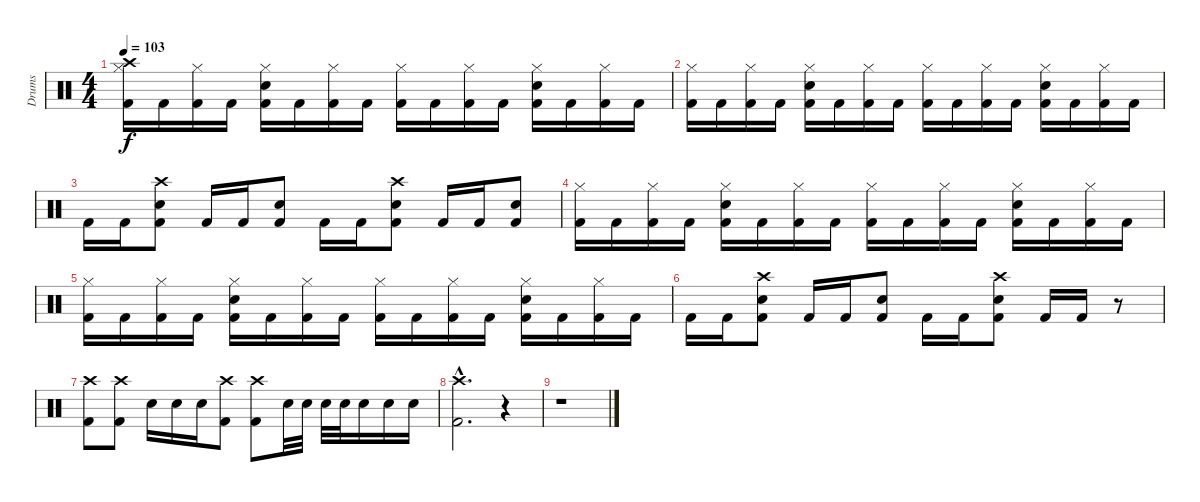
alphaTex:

\track ("Drums" "Drums") {instrument percussion}
\staff {score}
\articulation defaults
\ts (4 4)
\tempo 103
\clef neutral
\ks c
("Hi-Hat (closed)" "Crash high (hit)" "Kick (hit) 2").16{dy f} "Kick (hit) 2".16 ("Hi-Hat (closed)" "Kick (hit) 2").16 "Kick (hit) 2".16 ("Hi-Hat (closed)" "Electric Snare (hit)" "Kick (hit) 2").16 "Kick (hit) 2".16 ("Hi-Hat (closed)" "Kick (hit) 2").16 "Kick (hit) 2".16 ("Hi-Hat (closed)" "Kick (hit) 2").16 "Kick (hit) 2".16 ("Hi-Hat (closed)" "Kick (hit) 2").16 "Kick (hit) 2".16 ("Hi-Hat (closed)" "Electric Snare (hit)" "Kick (hit) 2").16 "Kick (hit) 2".16 ("Hi-Hat (closed)" "Kick (hit) 2").16 "Kick (hit) 2".16 |
("Hi-Hat (closed)" "Kick (hit) 2").16 "Kick (hit) 2".16 ("Hi-Hat (closed)" "Kick (hit) 2").16 "Kick (hit) 2".16 ("Hi-Hat (closed)" "Electric Snare (hit)" "Kick (hit) 2").16 "Kick (hit) 2".16 ("Hi-Hat (closed)" "Kick (hit) 2").16 "Kick (hit) 2".16 ("Hi-Hat (closed)" "Kick (hit) 2").16 "Kick (hit) 2".16 ("Hi-Hat (closed)" "Kick (hit) 2").16 "Kick (hit) 2".16 ("Hi-Hat (closed)" "Electric Snare (hit)" "Kick (hit) 2").16 "Kick (hit) 2".16 ("Hi-Hat (closed)" "Kick (hit) 2").16 "Kick (hit) 2".16 |
"Kick (hit) 2".16 "Kick (hit) 2".16 ("Crash high (hit)" "Electric Snare (hit)" "Kick (hit) 2").8 "Kick (hit) 2".16 "Kick (hit) 2".16 ("Electric Snare (hit)" "Kick (hit) 2").8 "Kick (hit) 2".16 "Kick (hit) 2".16 ("Crash high (hit)" "Electric Snare (hit)" "Kick (hit) 2").8 "Kick (hit) 2".16 "Kick (hit) 2".16 ("Electric Snare (hit)" "Kick (hit) 2").8 |
("Hi-Hat (closed)" "Kick (hit) 2").16 "Kick (hit) 2".16 ("Hi-Hat (closed)" "Kick (hit) 2").16 "Kick (hit) 2".16 ("Hi-Hat (closed)" "Electric Snare (hit)" "Kick (hit) 2").16 "Kick (hit) 2".16 ("Hi-Hat (closed)" "Kick (hit) 2").16 "Kick (hit) 2".16 ("Hi-Hat (closed)" "Kick (hit) 2").16 "Kick (hit) 2".16 ("Hi-Hat (closed)" "Kick (hit) 2").16 "Kick (hit) 2".16 ("Hi-Hat (closed)" "Electric Snare (hit)" "Kick (hit) 2").16 "Kick (hit) 2".16 ("Hi-Hat (closed)" "Kick (hit) 2").16 "Kick (hit) 2".16 |
("Hi-Hat (closed)" "Kick (hit) 2").16 "Kick (hit) 2".16 ("Hi-Hat (closed)" "Kick (hit) 2").16 "Kick (hit) 2".16 ("Hi-Hat (closed)" "Electric Snare (hit)" "Kick (hit) 2").16 "Kick (hit) 2".16 ("Hi-Hat (closed)" "Kick (hit) 2").16 "Kick (hit) 2".16 ("Hi-Hat (closed)" "Kick (hit) 2").16 "Kick (hit) 2".16 ("Hi-Hat (closed)" "Kick (hit) 2").16 "Kick (hit) 2".16 ("Hi-Hat (closed)" "Electric Snare (hit)" "Kick (hit) 2").16 "Kick (hit) 2".16 ("Hi-Hat (closed)" "Kick (hit) 2").16 "Kick (hit) 2".16 |
"Kick (hit) 2".16 "Kick (hit) 2".16 ("Crash high (hit)" "Electric Snare (hit)" "Kick (hit) 2").8 "Kick (hit) 2".16 "Kick (hit) 2".16 ("Electric Snare (hit)" "Kick (hit) 2").8 "Kick (hit) 2".16 "Kick (hit) 2".16 ("Crash high (hit)" "Electric Snare (hit)" "Kick (hit) 2").8 "Kick (hit) 2".16 "Kick (hit) 2".16 r.8 |
("Crash high (hit)" "Kick (hit) 2").8 ("Crash high (hit)" "Kick (hit) 2").8 "Electric Snare (hit)".16 "Electric Snare (hit)".16 "Electric Snare (hit)".16 ("Crash high (hit)" "Kick (hit) 2").8 ("Crash high (hit)" "Kick (hit) 2").8 "Electric Snare (hit)".32 "Electric Snare (hit)".32 "Electric Snare (hit)".32 "Electric Snare (hit)".32 "Electric Snare (hit)".16 "Electric Snare (hit)".16 "Electric Snare (hit)".16 |
("Crash high (hit)"{hac} "Kick (hit) 2"{hac}).2{d} r.4 |
r.1
